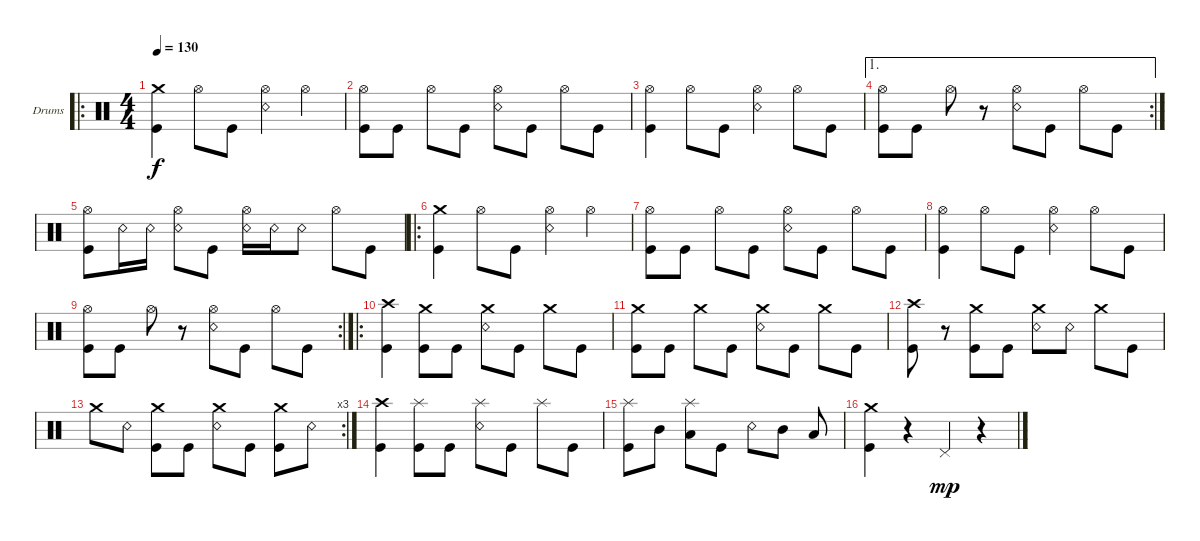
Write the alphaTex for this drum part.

\defaultSystemsLayout 4
\bracketExtendMode groupsimilarinstruments
\firstSystemTrackNameOrientation horizontal
\otherSystemsTrackNameOrientation horizontal
\track ("Drumkit" "Drums") {instrument percussion}
\staff {score}
\articulation defaults
\ro
\ts (4 4)
\tempo 130
\clef neutral
\scale
0.377049
\ks c
("Kick (hit)" "Crash medium (hit)").4{dy f} "Hi-Hat (open)".8 "Kick (hit)".8 ("Snare (rim shot)" "Hi-Hat (open)").4 "Hi-Hat (open)".4 |
\scale
0.311475 ("Kick (hit)" "Hi-Hat (open)").8 "Kick (hit)".8 "Hi-Hat (open)".8 "Kick (hit)".8 ("Snare (rim shot)" "Hi-Hat (open)").8 "Kick (hit)".8 "Hi-Hat (open)".8 "Kick (hit)".8 |
\scale
0.311475 ("Kick (hit)" "Hi-Hat (open)").4 "Hi-Hat (open)".8 "Kick (hit)".8 ("Snare (rim shot)" "Hi-Hat (open)").4 "Hi-Hat (open)".8 "Kick (hit)".8 |
\ae 1
\rc 2
\scale
0.333333 ("Kick (hit)" "Hi-Hat (open)").8 "Kick (hit)".8 "Hi-Hat (open)".8 r.8 ("Snare (rim shot)" "Hi-Hat (open)").8 "Kick (hit)".8 "Hi-Hat (open)".8 "Kick (hit)".8 |
("Kick (hit)" "Hi-Hat (open)").8 "Snare (rim shot)".16 "Snare (rim shot)".16 ("Snare (rim shot)" "Hi-Hat (open)").8 "Kick (hit)".8 ("Snare (rim shot)" "Hi-Hat (open)").16 "Snare (rim shot)".16 "Snare (rim shot)".8 "Hi-Hat (open)".8 "Kick (hit)".8 |
\ro
("Kick (hit)" "Crash medium (hit)").4 "Hi-Hat (open)".8 "Kick (hit)".8 ("Snare (rim shot)" "Hi-Hat (open)").4 "Hi-Hat (open)".4 |
("Kick (hit)" "Hi-Hat (open)").8 "Kick (hit)".8 "Hi-Hat (open)".8 "Kick (hit)".8 ("Snare (rim shot)" "Hi-Hat (open)").8 "Kick (hit)".8 "Hi-Hat (open)".8 "Kick (hit)".8 |
("Kick (hit)" "Hi-Hat (open)").4 "Hi-Hat (open)".8 "Kick (hit)".8 ("Snare (rim shot)" "Hi-Hat (open)").4 "Hi-Hat (open)".8 "Kick (hit)".8 |
\rc 2
("Hi-Hat (open)" "Kick (hit)").8 "Kick (hit)".8 "Hi-Hat (open)".8 r.8 ("Snare (rim shot)" "Hi-Hat (open)").8 "Kick (hit)".8 "Hi-Hat (open)".8 "Kick (hit)".8 |
\ro
\scale
0.365079 ("Kick (hit)" "Crash high (hit)").4 ("Kick (hit)" "Crash medium (hit)").8 "Kick (hit)".8 ("Snare (rim shot)" "Crash medium (hit)").8 "Kick (hit)".8 "Crash medium (hit)".8 "Kick (hit)".8 |
\scale
0.301587 ("Kick (hit)" "Crash medium (hit)").8 "Kick (hit)".8 "Crash medium (hit)".8 "Kick (hit)".8 ("Crash medium (hit)" "Snare (rim shot)").8 "Kick (hit)".8 "Crash medium (hit)".8 "Kick (hit)".8 |
\scale
0.322034 ("Kick (hit)" "Crash high (hit)").8 r.8 ("Kick (hit)" "Crash medium (hit)").8 "Kick (hit)".8 ("Snare (rim shot)" "Crash medium (hit)").8 "Snare (rim shot)".8 "Crash medium (hit)".8 "Kick (hit)".8 |
\rc 3
\scale
0.355932 "Crash medium (hit)".8 "Snare (rim shot)".8 ("Kick (hit)" "Crash medium (hit)").8 "Kick (hit)".8 ("Snare (rim shot)" "Crash medium (hit)").8 "Kick (hit)".8 ("Kick (hit)" "Crash medium (hit)").8 "Snare (rim shot)".8 |
\scale
0.322034 ("Kick (hit)" "Crash high (hit)").4 ("Kick (hit)" "Splash (hit)").8 "Kick (hit)".8 ("Snare (rim shot)" "Splash (hit)").8 "Kick (hit)".8 "Splash (hit)".8 "Kick (hit)".8 |
\scale
0.333333 ("Kick (hit)" "Splash (hit)").8 "Mid Tom (hit)".8 ("Splash (hit)" "Low Tom (hit)").8 "Kick (hit)".8 "Snare (rim shot)".8 "Mid Tom (hit)".8 "Low Tom (hit)".8 |
\scale
0.333333 ("Kick (hit)" "Crash medium (hit)").4 r.4 "Pedal Hi-Hat (hit)".4{dy mp} r.4
